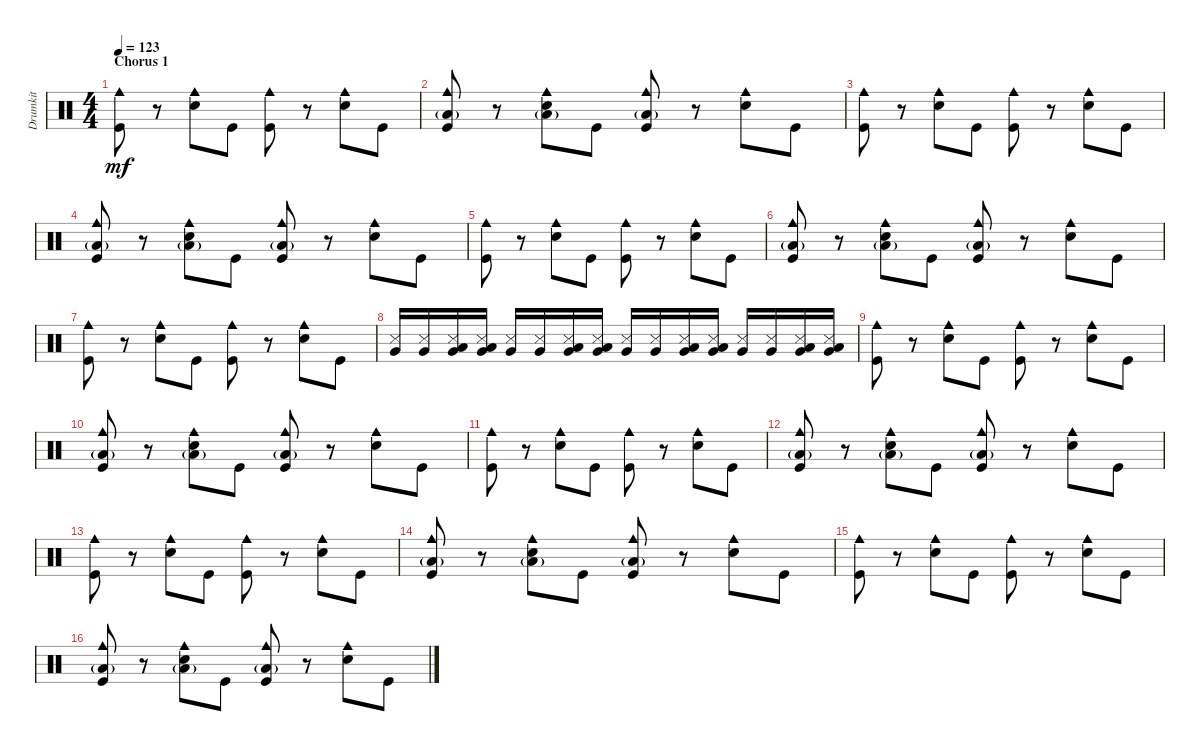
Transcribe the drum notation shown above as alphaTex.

\track ("Drumkit" "Drumkit") {instrument percussion}
\staff {score}
\articulation defaults
\ts (4 4)
\section ("" "Chorus 1")
\tempo 123
\clef neutral
\ks c
("Kick (hit)" "Cowbell medium (hit)").8{dy mf} r.8 ("Snare (hit) 2" "Cowbell medium (hit)").8 "Kick (hit)".8 ("Kick (hit)" "Cowbell medium (hit)").8 r.8 ("Snare (hit) 2" "Cowbell medium (hit)").8 "Kick (hit)".8 |
("Kick (hit)" "Low Floor Tom (hit)"{g} "Cowbell medium (hit)").8 r.8 ("Snare (hit) 2" "Low Floor Tom (hit)"{g} "Cowbell medium (hit)").8 "Kick (hit)".8 ("Kick (hit)" "Low Floor Tom (hit)"{g} "Cowbell medium (hit)").8 r.8 ("Snare (hit) 2" "Cowbell medium (hit)").8 "Kick (hit)".8 |
("Kick (hit)" "Cowbell medium (hit)").8 r.8 ("Snare (hit) 2" "Cowbell medium (hit)").8 "Kick (hit)".8 ("Kick (hit)" "Cowbell medium (hit)").8 r.8 ("Snare (hit) 2" "Cowbell medium (hit)").8 "Kick (hit)".8 |
("Kick (hit)" "Low Floor Tom (hit)"{g} "Cowbell medium (hit)").8 r.8 ("Snare (hit) 2" "Low Floor Tom (hit)"{g} "Cowbell medium (hit)").8 "Kick (hit)".8 ("Kick (hit)" "Low Floor Tom (hit)"{g} "Cowbell medium (hit)").8 r.8 ("Snare (hit) 2" "Cowbell medium (hit)").8 "Kick (hit)".8 |
("Kick (hit)" "Cowbell medium (hit)").8 r.8 ("Snare (hit) 2" "Cowbell medium (hit)").8 "Kick (hit)".8 ("Kick (hit)" "Cowbell medium (hit)").8 r.8 ("Snare (hit) 2" "Cowbell medium (hit)").8 "Kick (hit)".8 |
("Kick (hit)" "Low Floor Tom (hit)"{g} "Cowbell medium (hit)").8 r.8 ("Snare (hit) 2" "Low Floor Tom (hit)"{g} "Cowbell medium (hit)").8 "Kick (hit)".8 ("Kick (hit)" "Low Floor Tom (hit)"{g} "Cowbell medium (hit)").8 r.8 ("Snare (hit) 2" "Cowbell medium (hit)").8 "Kick (hit)".8 |
("Kick (hit)" "Cowbell medium (hit)").8 r.8 ("Snare (hit) 2" "Cowbell medium (hit)").8 "Kick (hit)".8 ("Kick (hit)" "Cowbell medium (hit)").8 r.8 ("Snare (hit) 2" "Cowbell medium (hit)").8 "Kick (hit)".8 |
("Snare (side stick) 3" "Very Low Tom (hit)").16 ("Snare (side stick) 3" "Very Low Tom (hit)").16 ("Snare (side stick) 3" "Very Low Tom (hit)" "Low Floor Tom (hit)").16 ("Snare (side stick) 3" "Very Low Tom (hit)" "Low Floor Tom (hit)").16 ("Snare (side stick) 3" "Very Low Tom (hit)").16 ("Snare (side stick) 3" "Very Low Tom (hit)").16 ("Snare (side stick) 3" "Very Low Tom (hit)" "Low Floor Tom (hit)").16 ("Snare (side stick) 3" "Very Low Tom (hit)" "Low Floor Tom (hit)").16 ("Snare (side stick) 3" "Very Low Tom (hit)").16 ("Snare (side stick) 3" "Very Low Tom (hit)").16 ("Snare (side stick) 3" "Very Low Tom (hit)" "Low Floor Tom (hit)").16 ("Snare (side stick) 3" "Very Low Tom (hit)" "Low Floor Tom (hit)").16 ("Snare (side stick) 3" "Very Low Tom (hit)").16 ("Snare (side stick) 3" "Very Low Tom (hit)").16 ("Snare (side stick) 3" "Very Low Tom (hit)" "Low Floor Tom (hit)").16 ("Snare (side stick) 3" "Very Low Tom (hit)" "Low Floor Tom (hit)").16 |
("Kick (hit)" "Cowbell medium (hit)").8 r.8 ("Snare (hit) 2" "Cowbell medium (hit)").8 "Kick (hit)".8 ("Kick (hit)" "Cowbell medium (hit)").8 r.8 ("Snare (hit) 2" "Cowbell medium (hit)").8 "Kick (hit)".8 |
("Kick (hit)" "Low Floor Tom (hit)"{g} "Cowbell medium (hit)").8 r.8 ("Snare (hit) 2" "Low Floor Tom (hit)"{g} "Cowbell medium (hit)").8 "Kick (hit)".8 ("Kick (hit)" "Low Floor Tom (hit)"{g} "Cowbell medium (hit)").8 r.8 ("Snare (hit) 2" "Cowbell medium (hit)").8 "Kick (hit)".8 |
("Kick (hit)" "Cowbell medium (hit)").8 r.8 ("Snare (hit) 2" "Cowbell medium (hit)").8 "Kick (hit)".8 ("Kick (hit)" "Cowbell medium (hit)").8 r.8 ("Snare (hit) 2" "Cowbell medium (hit)").8 "Kick (hit)".8 |
("Kick (hit)" "Low Floor Tom (hit)"{g} "Cowbell medium (hit)").8 r.8 ("Snare (hit) 2" "Low Floor Tom (hit)"{g} "Cowbell medium (hit)").8 "Kick (hit)".8 ("Kick (hit)" "Low Floor Tom (hit)"{g} "Cowbell medium (hit)").8 r.8 ("Snare (hit) 2" "Cowbell medium (hit)").8 "Kick (hit)".8 |
("Kick (hit)" "Cowbell medium (hit)").8 r.8 ("Snare (hit) 2" "Cowbell medium (hit)").8 "Kick (hit)".8 ("Kick (hit)" "Cowbell medium (hit)").8 r.8 ("Snare (hit) 2" "Cowbell medium (hit)").8 "Kick (hit)".8 |
("Kick (hit)" "Low Floor Tom (hit)"{g} "Cowbell medium (hit)").8 r.8 ("Snare (hit) 2" "Low Floor Tom (hit)"{g} "Cowbell medium (hit)").8 "Kick (hit)".8 ("Kick (hit)" "Low Floor Tom (hit)"{g} "Cowbell medium (hit)").8 r.8 ("Snare (hit) 2" "Cowbell medium (hit)").8 "Kick (hit)".8 |
("Kick (hit)" "Cowbell medium (hit)").8 r.8 ("Snare (hit) 2" "Cowbell medium (hit)").8 "Kick (hit)".8 ("Kick (hit)" "Cowbell medium (hit)").8 r.8 ("Snare (hit) 2" "Cowbell medium (hit)").8 "Kick (hit)".8 |
("Kick (hit)" "Low Floor Tom (hit)"{g} "Cowbell medium (hit)").8 r.8 ("Snare (hit) 2" "Low Floor Tom (hit)"{g} "Cowbell medium (hit)").8 "Kick (hit)".8 ("Kick (hit)" "Low Floor Tom (hit)"{g} "Cowbell medium (hit)").8 r.8 ("Snare (hit) 2" "Cowbell medium (hit)").8 "Kick (hit)".8
